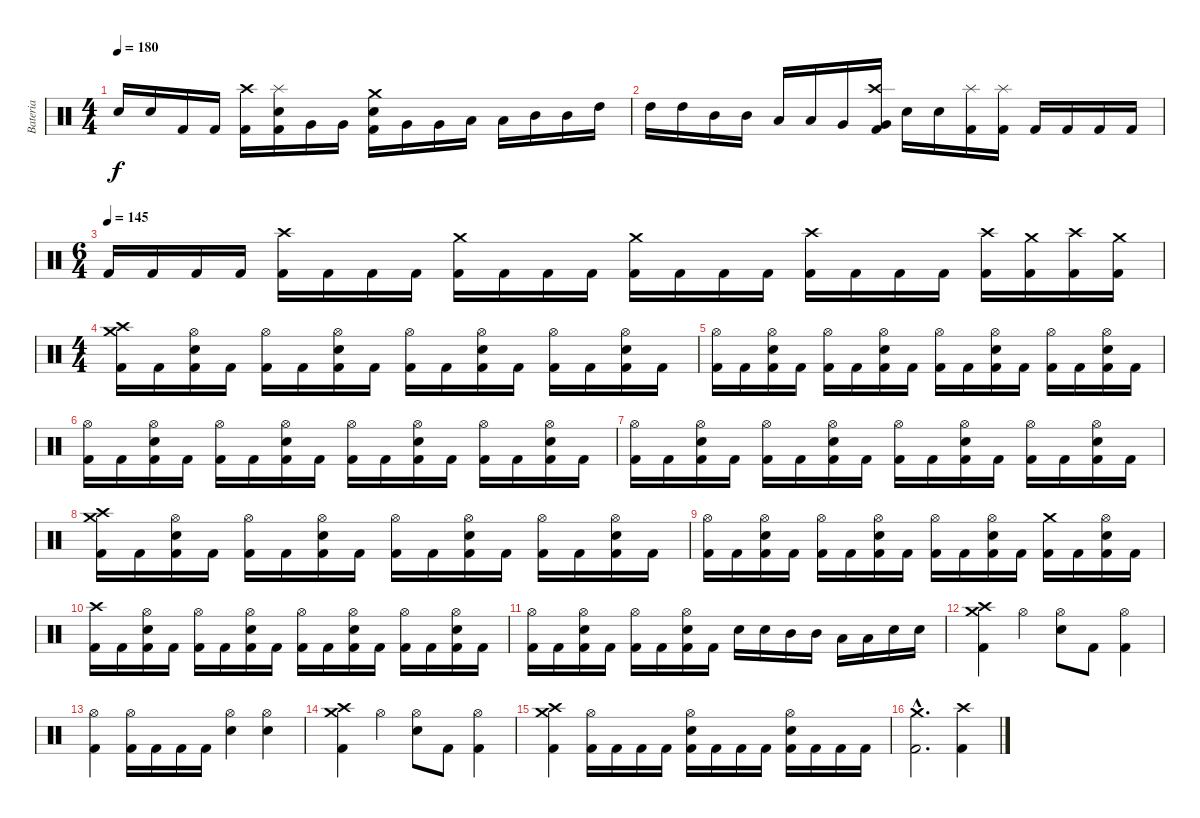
\track ("Bateria" "Bateria") {instrument percussion}
\staff {score}
\articulation defaults
\ts (4 4)
\tempo 180
\clef neutral
\ks c "Snare (hit) 2".16{dy f} "Snare (hit) 2".16 "Kick (hit) 2".16 "Kick (hit) 2".16
("Crash high (hit)" "Kick (hit) 2").16 ("Splash (hit)" "Snare (hit) 2" "Kick (hit) 2").16 "Very Low Tom (hit)".16 "Very Low Tom (hit)".16 ("Crash medium (hit)" "Snare (hit) 2" "Kick (hit) 2").16 "Very Low Tom (hit)".16 "Very Low Tom (hit)".16 "Low Tom (hit)".16 "Low Tom (hit)".16 "Mid Tom (hit)".16 "Mid Tom (hit)".16 "High Tom (hit)".16 |
"High Tom (hit)".16 "High Tom (hit)".16 "Mid Tom (hit)".16 "Mid Tom (hit)".16 "Low Tom (hit)".16 "Low Tom (hit)".16 "Very Low Tom (hit)".16 ("Very Low Tom (hit)" "Crash high (hit)" "Kick (hit) 2").16 "Snare (hit) 2".16 "Snare (hit) 2".16 ("Splash (hit)" "Kick (hit) 2").16 ("Splash (hit)" "Kick (hit) 2").16 "Kick (hit) 2".16 "Kick (hit) 2".16 "Kick (hit) 2".16 "Kick (hit) 2".16 |
\ts (6 4)
\tempo (145)
"Kick (hit) 2".16 "Kick (hit) 2".16 "Kick (hit) 2".16 "Kick (hit) 2".16 ("Crash high (hit)" "Kick (hit) 2").16 "Kick (hit) 2".16 "Kick (hit) 2".16 "Kick (hit) 2".16 ("Crash medium (hit)" "Kick (hit) 2").16 "Kick (hit) 2".16 "Kick (hit) 2".16 "Kick (hit) 2".16 ("Crash medium (hit)" "Kick (hit) 2").16 "Kick (hit) 2".16 "Kick (hit) 2".16 "Kick (hit) 2".16 ("Crash high (hit)" "Kick (hit) 2").16 "Kick (hit) 2".16 "Kick (hit) 2".16 "Kick (hit) 2".16 ("Crash high (hit)" "Kick (hit) 2").16 ("Crash medium (hit)" "Kick (hit) 2").16 ("Crash high (hit)" "Kick (hit) 2").16 ("Crash medium (hit)" "Kick (hit) 2").16 |
\ts (4 4)
("Crash medium (hit)" "Crash high (hit)" "Kick (hit) 2").16 "Kick (hit) 2".16 ("Hi-Hat (open)" "Snare (hit) 2" "Kick (hit) 2").16 "Kick (hit) 2".16 ("Hi-Hat (open)" "Kick (hit) 2").16 "Kick (hit) 2".16 ("Hi-Hat (open)" "Snare (hit) 2" "Kick (hit) 2").16 "Kick (hit) 2".16 ("Hi-Hat (open)" "Kick (hit) 2").16 "Kick (hit) 2".16 ("Hi-Hat (open)" "Snare (hit) 2" "Kick (hit) 2").16 "Kick (hit) 2".16 ("Hi-Hat (open)" "Kick (hit) 2").16 "Kick (hit) 2".16 ("Hi-Hat (open)" "Snare (hit) 2" "Kick (hit) 2").16 "Kick (hit) 2".16 |
("Hi-Hat (open)" "Kick (hit) 2").16 "Kick (hit) 2".16 ("Hi-Hat (open)" "Snare (hit) 2" "Kick (hit) 2").16 "Kick (hit) 2".16 ("Hi-Hat (open)" "Kick (hit) 2").16 "Kick (hit) 2".16 ("Hi-Hat (open)" "Snare (hit) 2" "Kick (hit) 2").16 "Kick (hit) 2".16 ("Hi-Hat (open)" "Kick (hit) 2").16 "Kick (hit) 2".16 ("Hi-Hat (open)" "Snare (hit) 2" "Kick (hit) 2").16 "Kick (hit) 2".16 ("Hi-Hat (open)" "Kick (hit) 2").16 "Kick (hit) 2".16 ("Hi-Hat (open)" "Snare (hit) 2" "Kick (hit) 2").16 "Kick (hit) 2".16 |
("Hi-Hat (open)" "Kick (hit) 2").16 "Kick (hit) 2".16 ("Hi-Hat (open)" "Snare (hit) 2" "Kick (hit) 2").16 "Kick (hit) 2".16 ("Hi-Hat (open)" "Kick (hit) 2").16 "Kick (hit) 2".16 ("Hi-Hat (open)" "Snare (hit) 2" "Kick (hit) 2").16 "Kick (hit) 2".16 ("Hi-Hat (open)" "Kick (hit) 2").16 "Kick (hit) 2".16 ("Hi-Hat (open)" "Snare (hit) 2" "Kick (hit) 2").16 "Kick (hit) 2".16 ("Hi-Hat (open)" "Kick (hit) 2").16 "Kick (hit) 2".16 ("Hi-Hat (open)" "Snare (hit) 2" "Kick (hit) 2").16 "Kick (hit) 2".16 |
("Hi-Hat (open)" "Kick (hit) 2").16 "Kick (hit) 2".16 ("Hi-Hat (open)" "Snare (hit) 2" "Kick (hit) 2").16 "Kick (hit) 2".16 ("Hi-Hat (open)" "Kick (hit) 2").16 "Kick (hit) 2".16 ("Hi-Hat (open)" "Snare (hit) 2" "Kick (hit) 2").16 "Kick (hit) 2".16 ("Hi-Hat (open)" "Kick (hit) 2").16 "Kick (hit) 2".16 ("Hi-Hat (open)" "Snare (hit) 2" "Kick (hit) 2").16 "Kick (hit) 2".16 ("Hi-Hat (open)" "Kick (hit) 2").16 "Kick (hit) 2".16 ("Hi-Hat (open)" "Snare (hit) 2" "Kick (hit) 2").16 "Kick (hit) 2".16 |
("Crash medium (hit)" "Crash high (hit)" "Kick (hit) 2").16 "Kick (hit) 2".16 ("Hi-Hat (open)" "Snare (hit) 2" "Kick (hit) 2").16 "Kick (hit) 2".16 ("Hi-Hat (open)" "Kick (hit) 2").16 "Kick (hit) 2".16 ("Hi-Hat (open)" "Snare (hit) 2" "Kick (hit) 2").16 "Kick (hit) 2".16 ("Hi-Hat (open)" "Kick (hit) 2").16 "Kick (hit) 2".16 ("Hi-Hat (open)" "Snare (hit) 2" "Kick (hit) 2").16 "Kick (hit) 2".16 ("Hi-Hat (open)" "Kick (hit) 2").16 "Kick (hit) 2".16 ("Hi-Hat (open)" "Snare (hit) 2" "Kick (hit) 2").16 "Kick (hit) 2".16 |
("Hi-Hat (open)" "Kick (hit) 2").16 "Kick (hit) 2".16 ("Hi-Hat (open)" "Snare (hit) 2" "Kick (hit) 2").16 "Kick (hit) 2".16 ("Hi-Hat (open)" "Kick (hit) 2").16 "Kick (hit) 2".16 ("Hi-Hat (open)" "Snare (hit) 2" "Kick (hit) 2").16 "Kick (hit) 2".16 ("Hi-Hat (open)" "Kick (hit) 2").16 "Kick (hit) 2".16 ("Hi-Hat (open)" "Snare (hit) 2" "Kick (hit) 2").16 "Kick (hit) 2".16 ("Crash medium (hit)" "Kick (hit) 2").16 "Kick (hit) 2".16 ("Hi-Hat (open)" "Snare (hit) 2" "Kick (hit) 2").16 "Kick (hit) 2".16 |
("Crash high (hit)" "Kick (hit) 2").16 "Kick (hit) 2".16 ("Hi-Hat (open)" "Snare (hit) 2" "Kick (hit) 2").16 "Kick (hit) 2".16 ("Hi-Hat (open)" "Kick (hit) 2").16 "Kick (hit) 2".16 ("Hi-Hat (open)" "Snare (hit) 2" "Kick (hit) 2").16 "Kick (hit) 2".16 ("Hi-Hat (open)" "Kick (hit) 2").16 "Kick (hit) 2".16 ("Hi-Hat (open)" "Snare (hit) 2" "Kick (hit) 2").16 "Kick (hit) 2".16 ("Hi-Hat (open)" "Kick (hit) 2").16 "Kick (hit) 2".16 ("Hi-Hat (open)" "Snare (hit) 2" "Kick (hit) 2").16 "Kick (hit) 2".16 |
("Hi-Hat (open)" "Kick (hit) 2").16 "Kick (hit) 2".16 ("Hi-Hat (open)" "Snare (hit) 2" "Kick (hit) 2").16 "Kick (hit) 2".16 ("Hi-Hat (open)" "Kick (hit) 2").16 "Kick (hit) 2".16 ("Hi-Hat (open)" "Snare (hit) 2" "Kick (hit) 2").16 "Kick (hit) 2".16 "Snare (hit) 2".16 "Snare (hit) 2".16 "Mid Tom (hit)".16 "Mid Tom (hit)".16 "Low Tom (hit)".16 "Low Tom (hit)".16 "Snare (hit) 2".16 "Snare (hit) 2".16 |
("Crash high (hit)" "Crash medium (hit)" "Kick (hit) 2").4 "Hi-Hat (open)".4 ("Hi-Hat (open)" "Snare (hit) 2").8 "Kick (hit) 2".8 ("Hi-Hat (open)" "Kick (hit) 2").4 |
("Hi-Hat (open)" "Kick (hit) 2").4 ("Hi-Hat (open)" "Kick (hit) 2").16 "Kick (hit) 2".16 "Kick (hit) 2".16 "Kick (hit) 2".16 ("Hi-Hat (open)" "Snare (hit) 2").4 ("Hi-Hat (open)" "Snare (hit) 2").4 |
("Crash high (hit)" "Crash medium (hit)" "Kick (hit) 2").4 "Hi-Hat (open)".4 ("Hi-Hat (open)" "Snare (hit) 2").8 "Kick (hit) 2".8 ("Hi-Hat (open)" "Kick (hit) 2").4 |
("Crash high (hit)" "Crash medium (hit)" "Kick (hit) 2").4 ("Hi-Hat (open)" "Kick (hit) 2").16 "Kick (hit) 2".16 "Kick (hit) 2".16 "Kick (hit) 2".16 ("Hi-Hat (open)" "Snare (hit) 2" "Kick (hit) 2").16 "Kick (hit) 2".16 "Kick (hit) 2".16 "Kick (hit) 2".16 ("Hi-Hat (open)" "Snare (hit) 2" "Kick (hit) 2").16 "Kick (hit) 2".16 "Kick (hit) 2".16 "Kick (hit) 2".16 |
("Crash medium (hit)"{hac} "Kick (hit) 2"{hac}).2{d} ("Crash high (hit)" "Kick (hit) 2").4
